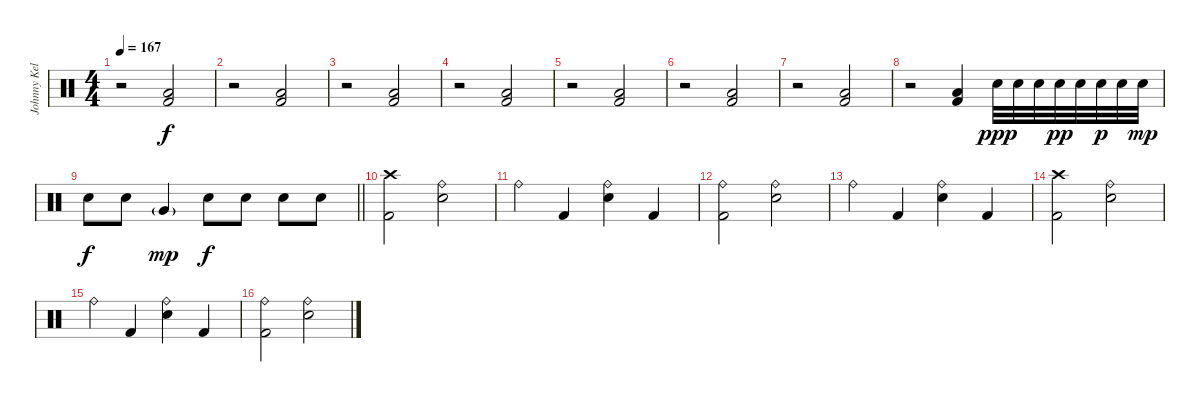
\track ("Johnny Kelly" "Johnny Kel") {instrument percussion}
\staff {score}
\articulation defaults
\ts (4 4)
\tempo 167
\clef neutral
\ks c
r.2{dy f} ("Low Floor Tom (hit)" "Kick (hit) 2").2 |
r.2 ("Low Floor Tom (hit)" "Kick (hit) 2").2 |
r.2 ("Low Floor Tom (hit)" "Kick (hit) 2").2 |
r.2 ("Low Floor Tom (hit)" "Kick (hit) 2").2 |
r.2 ("Low Floor Tom (hit)" "Kick (hit) 2").2 |
r.2 ("Low Floor Tom (hit)" "Kick (hit) 2").2 |
r.2 ("Low Floor Tom (hit)" "Kick (hit) 2").2 |
r.2 ("Low Floor Tom (hit)" "Kick (hit) 2").4 "Electric Snare (hit)".32{dy ppp} "Electric Snare (hit)".32 "Electric Snare (hit)".32 "Electric Snare (hit)".32{dy pp} "Electric Snare (hit)".32 "Electric Snare (hit)".32{dy p} "Electric Snare (hit)".32 "Electric Snare (hit)".32{dy mp} |
\barLineRight lightlight "Electric Snare (hit)".8{dy f} "Electric Snare (hit)".8 "Very Low Tom (hit)"{g}.4{dy mp} "Electric Snare (hit)".8{dy f} "Electric Snare (hit)".8 "Electric Snare (hit)".8 "Electric Snare (hit)".8
|
\section ("" "")
("Crash high (hit)" "Kick (hit) 2").2 ("Ride (bell)" "Electric Snare (hit)").2 |
"Ride (bell)".4 "Kick (hit) 2".4 ("Ride (bell)" "Electric Snare (hit)").4 "Kick (hit) 2".4 |
("Ride (bell)" "Kick (hit) 2").2 ("Ride (bell)" "Electric Snare (hit)").2 |
"Ride (bell)".4 "Kick (hit) 2".4 ("Ride (bell)" "Electric Snare (hit)").4 "Kick (hit) 2".4 |
("Crash high (hit)" "Kick (hit) 2").2 ("Ride (bell)" "Electric Snare (hit)").2 |
"Ride (bell)".4 "Kick (hit) 2".4 ("Ride (bell)" "Electric Snare (hit)").4 "Kick (hit) 2".4 |
("Ride (bell)" "Kick (hit) 2").2 ("Ride (bell)" "Electric Snare (hit)").2
